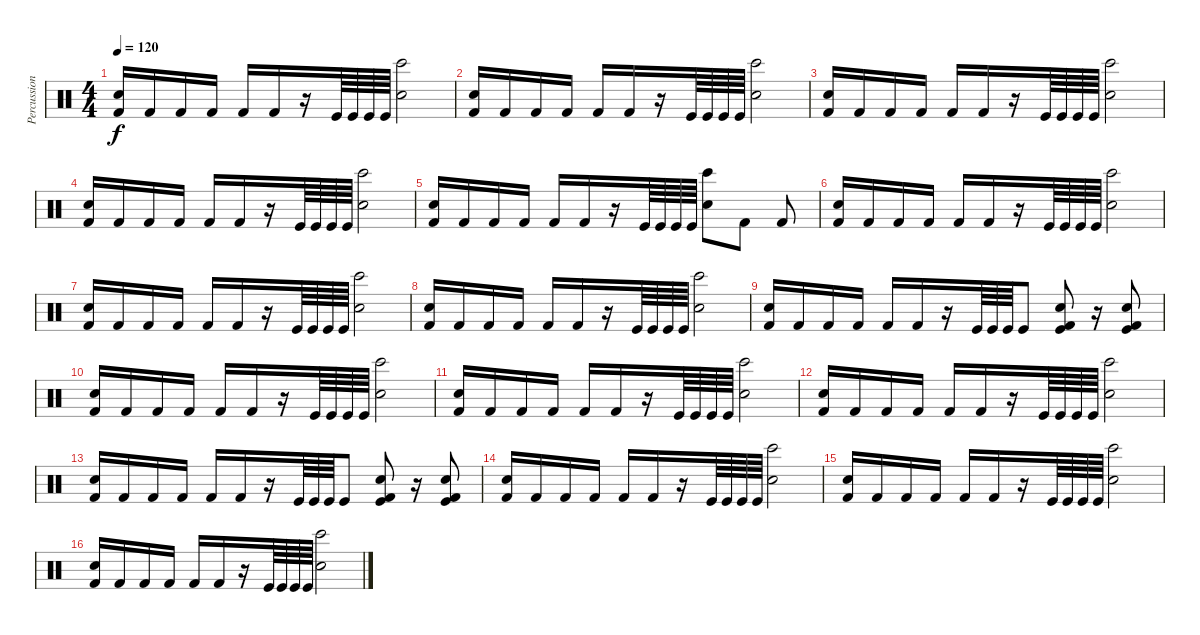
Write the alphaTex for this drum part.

\track ("Percussion" "Percussion") {instrument percussion}
\staff {score}
\articulation defaults
\ts (4 4)
\tempo 120
\clef neutral
\ks c
("Kick (hit) 2" "Snare (hit) 2").16{dy f} "Kick (hit) 2".16 "Kick (hit) 2".16 "Kick (hit) 2".16 "Kick (hit) 2".16 "Kick (hit) 2".16 r.16 "Kick (hit)".64 "Kick (hit)".64 "Kick (hit)".64 "Kick (hit)".64 ("Bongo High (hit)" "Snare (hit) 2").2 |
("Kick (hit) 2" "Snare (hit) 2").16 "Kick (hit) 2".16 "Kick (hit) 2".16 "Kick (hit) 2".16 "Kick (hit) 2".16 "Kick (hit) 2".16 r.16 "Kick (hit)".64 "Kick (hit)".64 "Kick (hit)".64 "Kick (hit)".64 ("Bongo High (hit)" "Snare (hit) 2").2 |
("Kick (hit) 2" "Snare (hit) 2").16 "Kick (hit) 2".16 "Kick (hit) 2".16 "Kick (hit) 2".16 "Kick (hit) 2".16 "Kick (hit) 2".16 r.16 "Kick (hit)".64 "Kick (hit)".64 "Kick (hit)".64 "Kick (hit)".64 ("Bongo High (hit)" "Snare (hit) 2").2 |
("Kick (hit) 2" "Snare (hit) 2").16 "Kick (hit) 2".16 "Kick (hit) 2".16 "Kick (hit) 2".16 "Kick (hit) 2".16 "Kick (hit) 2".16 r.16 "Kick (hit)".64 "Kick (hit)".64 "Kick (hit)".64 "Kick (hit)".64 ("Bongo High (hit)" "Snare (hit) 2").2 |
("Kick (hit) 2" "Snare (hit) 2").16 "Kick (hit) 2".16 "Kick (hit) 2".16 "Kick (hit) 2".16 "Kick (hit) 2".16 "Kick (hit) 2".16 r.16 "Kick (hit)".64 "Kick (hit)".64 "Kick (hit)".64 "Kick (hit)".64 ("Bongo High (hit)" "Snare (hit) 2").8 "Kick (hit) 2".8 "Kick (hit) 2".8 |
("Kick (hit) 2" "Snare (hit) 2").16 "Kick (hit) 2".16 "Kick (hit) 2".16 "Kick (hit) 2".16 "Kick (hit) 2".16 "Kick (hit) 2".16 r.16 "Kick (hit)".64 "Kick (hit)".64 "Kick (hit)".64 "Kick (hit)".64 ("Bongo High (hit)" "Snare (hit) 2").2 |
("Kick (hit) 2" "Snare (hit) 2").16 "Kick (hit) 2".16 "Kick (hit) 2".16 "Kick (hit) 2".16 "Kick (hit) 2".16 "Kick (hit) 2".16 r.16 "Kick (hit)".64 "Kick (hit)".64 "Kick (hit)".64 "Kick (hit)".64 ("Bongo High (hit)" "Snare (hit) 2").2 |
("Kick (hit) 2" "Snare (hit) 2").16 "Kick (hit) 2".16 "Kick (hit) 2".16 "Kick (hit) 2".16 "Kick (hit) 2".16 "Kick (hit) 2".16 r.16 "Kick (hit)".64 "Kick (hit)".64 "Kick (hit)".64 "Kick (hit)".64 ("Bongo High (hit)" "Snare (hit) 2").2 |
("Kick (hit) 2" "Snare (hit) 2").16 "Kick (hit) 2".16 "Kick (hit) 2".16 "Kick (hit) 2".16 "Kick (hit) 2".16 "Kick (hit) 2".16 r.16 "Kick (hit)".64 "Kick (hit)".64 "Kick (hit)".64 "Kick (hit)".8 ("Kick (hit) 2" "Snare (hit) 2" "Kick (hit)").8 r.16 ("Kick (hit) 2" "Snare (hit) 2" "Kick (hit)").8 |
("Kick (hit) 2" "Snare (hit) 2").16 "Kick (hit) 2".16 "Kick (hit) 2".16 "Kick (hit) 2".16 "Kick (hit) 2".16 "Kick (hit) 2".16 r.16 "Kick (hit)".64 "Kick (hit)".64 "Kick (hit)".64 "Kick (hit)".64 ("Bongo High (hit)" "Snare (hit) 2").2 |
("Kick (hit) 2" "Snare (hit) 2").16 "Kick (hit) 2".16 "Kick (hit) 2".16 "Kick (hit) 2".16 "Kick (hit) 2".16 "Kick (hit) 2".16 r.16 "Kick (hit)".64 "Kick (hit)".64 "Kick (hit)".64 "Kick (hit)".64 ("Bongo High (hit)" "Snare (hit) 2").2 |
("Kick (hit) 2" "Snare (hit) 2").16 "Kick (hit) 2".16 "Kick (hit) 2".16 "Kick (hit) 2".16 "Kick (hit) 2".16 "Kick (hit) 2".16 r.16 "Kick (hit)".64 "Kick (hit)".64 "Kick (hit)".64 "Kick (hit)".64 ("Bongo High (hit)" "Snare (hit) 2").2 |
("Kick (hit) 2" "Snare (hit) 2").16 "Kick (hit) 2".16 "Kick (hit) 2".16 "Kick (hit) 2".16 "Kick (hit) 2".16 "Kick (hit) 2".16 r.16 "Kick (hit)".64 "Kick (hit)".64 "Kick (hit)".64 "Kick (hit)".8 ("Kick (hit) 2" "Snare (hit) 2" "Kick (hit)").8 r.16 ("Kick (hit) 2" "Snare (hit) 2" "Kick (hit)").8 |
("Kick (hit) 2" "Snare (hit) 2").16 "Kick (hit) 2".16 "Kick (hit) 2".16 "Kick (hit) 2".16 "Kick (hit) 2".16 "Kick (hit) 2".16 r.16 "Kick (hit)".64 "Kick (hit)".64 "Kick (hit)".64 "Kick (hit)".64 ("Bongo High (hit)" "Snare (hit) 2").2 |
("Kick (hit) 2" "Snare (hit) 2").16 "Kick (hit) 2".16 "Kick (hit) 2".16 "Kick (hit) 2".16 "Kick (hit) 2".16 "Kick (hit) 2".16 r.16 "Kick (hit)".64 "Kick (hit)".64 "Kick (hit)".64 "Kick (hit)".64 ("Bongo High (hit)" "Snare (hit) 2").2 |
("Kick (hit) 2" "Snare (hit) 2").16 "Kick (hit) 2".16 "Kick (hit) 2".16 "Kick (hit) 2".16 "Kick (hit) 2".16 "Kick (hit) 2".16 r.16 "Kick (hit)".64 "Kick (hit)".64 "Kick (hit)".64 "Kick (hit)".64 ("Bongo High (hit)" "Snare (hit) 2").2
